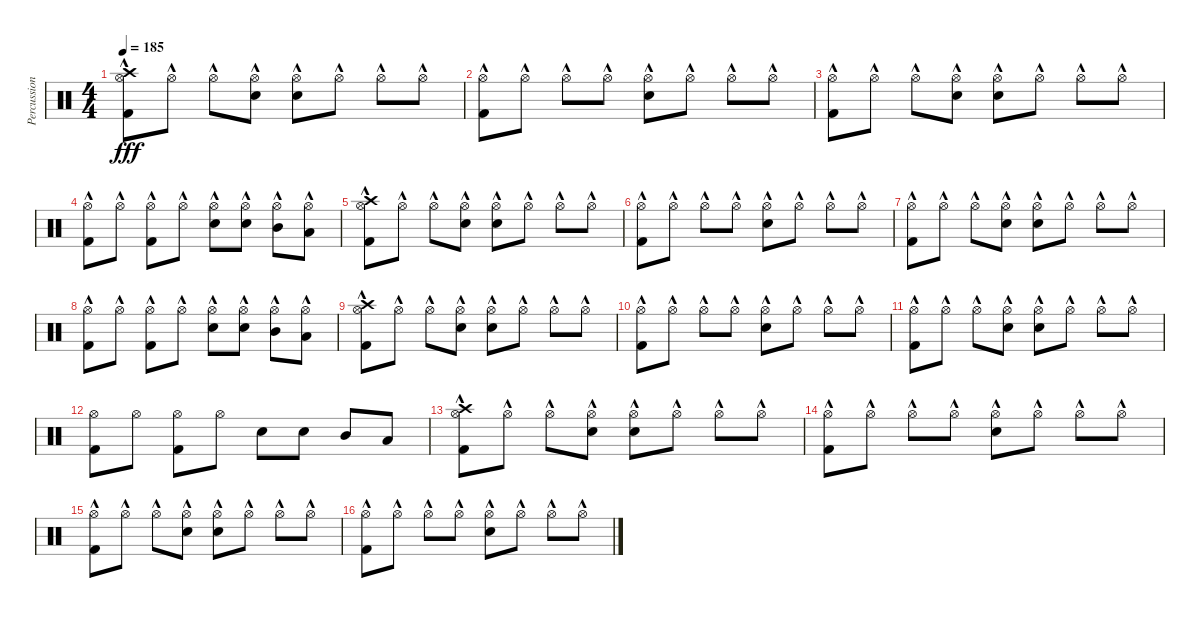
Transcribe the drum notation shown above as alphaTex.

\track ("Percussion" "Percussion") {instrument percussion}
\staff {score}
\articulation defaults
\ts (4 4)
\tempo 185
\clef neutral
\ks c
("Crash high (hit)"{hac} "Kick (hit) 2"{hac} "Hi-Hat (open)"{hac}).8{dy fff} "Hi-Hat (open)"{hac}.8 "Hi-Hat (open)"{hac}.8 ("Electric Snare (hit)"{hac} "Hi-Hat (open)"{hac}).8 ("Electric Snare (hit)"{hac} "Hi-Hat (open)"{hac}).8 "Hi-Hat (open)"{hac}.8 "Hi-Hat (open)"{hac}.8 "Hi-Hat (open)"{hac}.8 |
("Kick (hit) 2"{hac} "Hi-Hat (open)"{hac}).8 "Hi-Hat (open)"{hac}.8 "Hi-Hat (open)"{hac}.8 "Hi-Hat (open)"{hac}.8 ("Electric Snare (hit)"{hac} "Hi-Hat (open)"{hac}).8 "Hi-Hat (open)"{hac}.8 "Hi-Hat (open)"{hac}.8 "Hi-Hat (open)"{hac}.8 |
("Kick (hit) 2"{hac} "Hi-Hat (open)"{hac}).8 "Hi-Hat (open)"{hac}.8 "Hi-Hat (open)"{hac}.8 ("Electric Snare (hit)"{hac} "Hi-Hat (open)"{hac}).8 ("Electric Snare (hit)"{hac} "Hi-Hat (open)"{hac}).8 "Hi-Hat (open)"{hac}.8 "Hi-Hat (open)"{hac}.8 "Hi-Hat (open)"{hac}.8 |
("Kick (hit) 2"{hac} "Hi-Hat (open)"{hac}).8 "Hi-Hat (open)"{hac}.8 ("Kick (hit) 2"{hac} "Hi-Hat (open)"{hac}).8 "Hi-Hat (open)"{hac}.8 ("Electric Snare (hit)"{hac} "Hi-Hat (open)"{hac}).8 ("Electric Snare (hit)"{hac} "Hi-Hat (open)"{hac}).8 ("Mid Tom (hit)"{hac} "Hi-Hat (open)"{hac}).8 ("Low Floor Tom (hit)"{hac} "Hi-Hat (open)"{hac}).8 |
("Crash high (hit)"{hac} "Kick (hit) 2"{hac} "Hi-Hat (open)"{hac}).8 "Hi-Hat (open)"{hac}.8 "Hi-Hat (open)"{hac}.8 ("Electric Snare (hit)"{hac} "Hi-Hat (open)"{hac}).8 ("Electric Snare (hit)"{hac} "Hi-Hat (open)"{hac}).8 "Hi-Hat (open)"{hac}.8 "Hi-Hat (open)"{hac}.8 "Hi-Hat (open)"{hac}.8 |
("Kick (hit) 2"{hac} "Hi-Hat (open)"{hac}).8 "Hi-Hat (open)"{hac}.8 "Hi-Hat (open)"{hac}.8 "Hi-Hat (open)"{hac}.8 ("Electric Snare (hit)"{hac} "Hi-Hat (open)"{hac}).8 "Hi-Hat (open)"{hac}.8 "Hi-Hat (open)"{hac}.8 "Hi-Hat (open)"{hac}.8 |
("Kick (hit) 2"{hac} "Hi-Hat (open)"{hac}).8 "Hi-Hat (open)"{hac}.8 "Hi-Hat (open)"{hac}.8 ("Electric Snare (hit)"{hac} "Hi-Hat (open)"{hac}).8 ("Electric Snare (hit)"{hac} "Hi-Hat (open)"{hac}).8 "Hi-Hat (open)"{hac}.8 "Hi-Hat (open)"{hac}.8 "Hi-Hat (open)"{hac}.8 |
("Kick (hit) 2"{hac} "Hi-Hat (open)"{hac}).8 "Hi-Hat (open)"{hac}.8 ("Kick (hit) 2"{hac} "Hi-Hat (open)"{hac}).8 "Hi-Hat (open)"{hac}.8 ("Electric Snare (hit)"{hac} "Hi-Hat (open)"{hac}).8 ("Electric Snare (hit)"{hac} "Hi-Hat (open)"{hac}).8 ("Mid Tom (hit)"{hac} "Hi-Hat (open)"{hac}).8 ("Low Floor Tom (hit)"{hac} "Hi-Hat (open)"{hac}).8 |
("Crash high (hit)"{hac} "Kick (hit) 2"{hac} "Hi-Hat (open)"{hac}).8 "Hi-Hat (open)"{hac}.8 "Hi-Hat (open)"{hac}.8 ("Electric Snare (hit)"{hac} "Hi-Hat (open)"{hac}).8 ("Electric Snare (hit)"{hac} "Hi-Hat (open)"{hac}).8 "Hi-Hat (open)"{hac}.8 "Hi-Hat (open)"{hac}.8 "Hi-Hat (open)"{hac}.8 |
("Kick (hit) 2"{hac} "Hi-Hat (open)"{hac}).8 "Hi-Hat (open)"{hac}.8 "Hi-Hat (open)"{hac}.8 "Hi-Hat (open)"{hac}.8 ("Electric Snare (hit)"{hac} "Hi-Hat (open)"{hac}).8 "Hi-Hat (open)"{hac}.8 "Hi-Hat (open)"{hac}.8 "Hi-Hat (open)"{hac}.8 |
("Kick (hit) 2"{hac} "Hi-Hat (open)"{hac}).8 "Hi-Hat (open)"{hac}.8 "Hi-Hat (open)"{hac}.8 ("Electric Snare (hit)"{hac} "Hi-Hat (open)"{hac}).8 ("Electric Snare (hit)"{hac} "Hi-Hat (open)"{hac}).8 "Hi-Hat (open)"{hac}.8 "Hi-Hat (open)"{hac}.8 "Hi-Hat (open)"{hac}.8 |
("Hi-Hat (open)" "Kick (hit) 2").8 "Hi-Hat (open)".8 ("Hi-Hat (open)" "Kick (hit) 2").8 "Hi-Hat (open)".8 "Electric Snare (hit)".8 "Electric Snare (hit)".8 "Mid Tom (hit)".8 "Low Floor Tom (hit)".8 |
("Crash high (hit)"{hac} "Kick (hit) 2"{hac} "Hi-Hat (open)"{hac}).8 "Hi-Hat (open)"{hac}.8 "Hi-Hat (open)"{hac}.8 ("Electric Snare (hit)"{hac} "Hi-Hat (open)"{hac}).8 ("Electric Snare (hit)"{hac} "Hi-Hat (open)"{hac}).8 "Hi-Hat (open)"{hac}.8 "Hi-Hat (open)"{hac}.8 "Hi-Hat (open)"{hac}.8 |
("Kick (hit) 2"{hac} "Hi-Hat (open)"{hac}).8 "Hi-Hat (open)"{hac}.8 "Hi-Hat (open)"{hac}.8 "Hi-Hat (open)"{hac}.8 ("Electric Snare (hit)"{hac} "Hi-Hat (open)"{hac}).8 "Hi-Hat (open)"{hac}.8 "Hi-Hat (open)"{hac}.8 "Hi-Hat (open)"{hac}.8 |
("Kick (hit) 2"{hac} "Hi-Hat (open)"{hac}).8 "Hi-Hat (open)"{hac}.8 "Hi-Hat (open)"{hac}.8 ("Electric Snare (hit)"{hac} "Hi-Hat (open)"{hac}).8 ("Electric Snare (hit)"{hac} "Hi-Hat (open)"{hac}).8 "Hi-Hat (open)"{hac}.8 "Hi-Hat (open)"{hac}.8 "Hi-Hat (open)"{hac}.8 |
("Kick (hit) 2"{hac} "Hi-Hat (open)"{hac}).8 "Hi-Hat (open)"{hac}.8 "Hi-Hat (open)"{hac}.8 "Hi-Hat (open)"{hac}.8 ("Electric Snare (hit)"{hac} "Hi-Hat (open)"{hac}).8 "Hi-Hat (open)"{hac}.8 "Hi-Hat (open)"{hac}.8 "Hi-Hat (open)"{hac}.8
